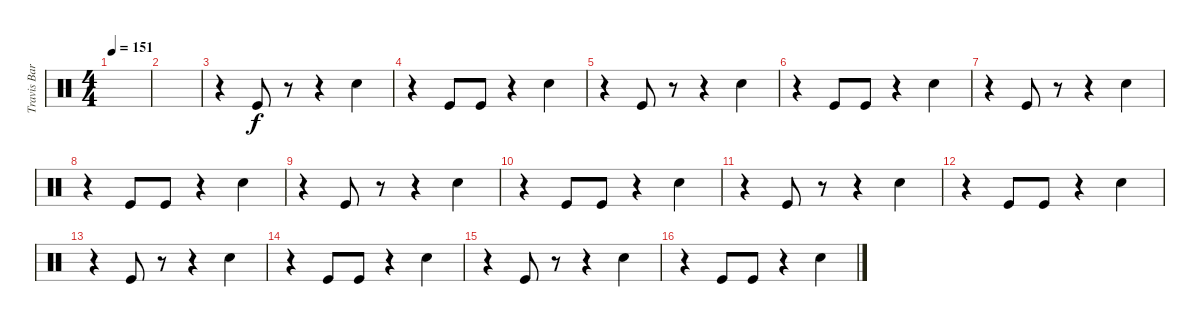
\track ("Travis Barker (Drums)" "Travis Bar") {instrument percussion}
\staff {score}
\articulation defaults
\ts (4 4)
\tempo 151
\clef neutral
\ks c
|
|
r.4 "Kick (hit)".8 r.8 r.4 "Snare (hit) 2".4 |
r.4 "Kick (hit)".8 "Kick (hit)".8 r.4 "Snare (hit) 2".4 |
r.4 "Kick (hit)".8 r.8 r.4 "Snare (hit) 2".4 |
r.4 "Kick (hit)".8 "Kick (hit)".8 r.4 "Snare (hit) 2".4 |
r.4 "Kick (hit)".8 r.8 r.4 "Snare (hit) 2".4 |
r.4 "Kick (hit)".8 "Kick (hit)".8 r.4 "Snare (hit) 2".4 |
r.4 "Kick (hit)".8 r.8 r.4 "Snare (hit) 2".4 |
r.4 "Kick (hit)".8 "Kick (hit)".8 r.4 "Snare (hit) 2".4 |
r.4 "Kick (hit)".8 r.8 r.4 "Snare (hit) 2".4 |
r.4 "Kick (hit)".8 "Kick (hit)".8 r.4 "Snare (hit) 2".4 |
r.4 "Kick (hit)".8 r.8 r.4 "Snare (hit) 2".4 |
r.4 "Kick (hit)".8 "Kick (hit)".8 r.4 "Snare (hit) 2".4 |
r.4 "Kick (hit)".8 r.8 r.4 "Snare (hit) 2".4 |
r.4 "Kick (hit)".8 "Kick (hit)".8 r.4 "Snare (hit) 2".4
